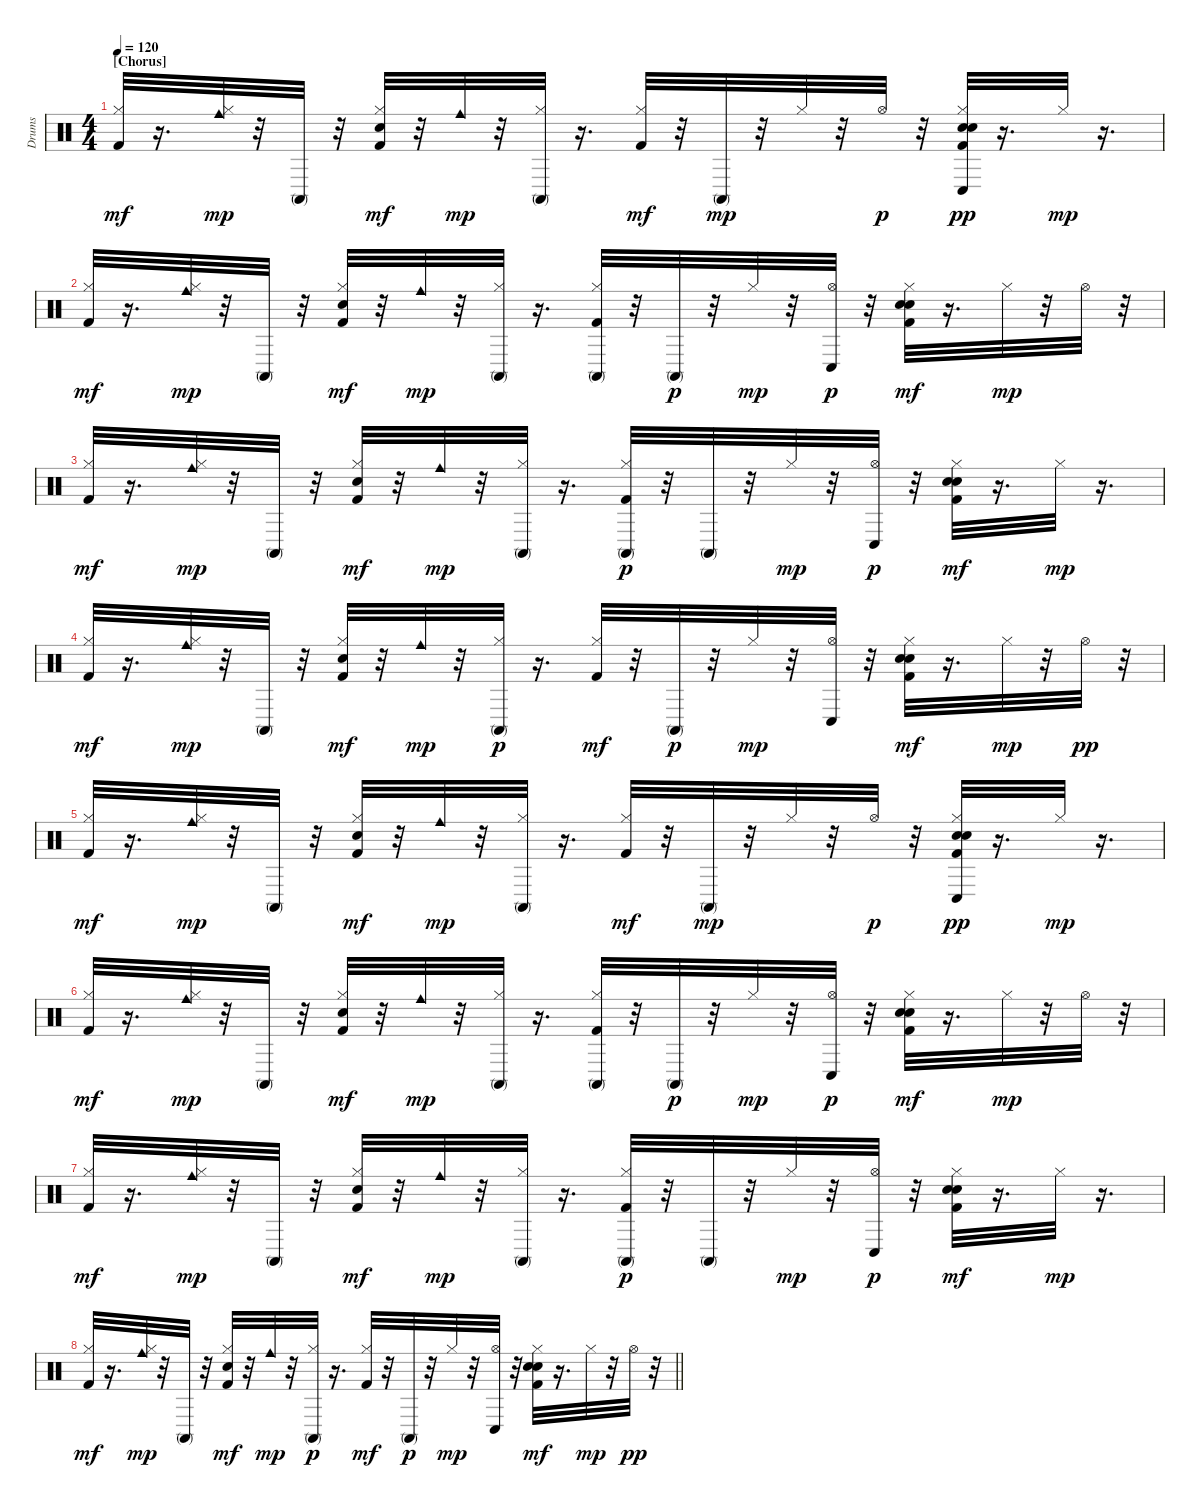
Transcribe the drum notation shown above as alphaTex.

\track ("Drums" "Drums") {instrument percussion}
\staff {score}
\articulation defaults
\ts (4 4)
\section ("" "[Chorus]")
\tempo 120
\clef neutral
\ks c
("Hi-Hat (closed)" "Kick (hit) 2").32{dy mf} r.16{d} ("Hi-Hat (closed)" "Cowbell medium (hit)").32{dy mp} r.32 "Conga high (mute)".32 r.32 ("Hi-Hat (closed)" "Electric Snare (hit)" "Kick (hit) 2").32{dy mf} r.32 "Cowbell medium (hit)".32{dy mp} r.32 ("Hi-Hat (closed)" "Conga high (mute)").32 r.16{d} ("Hi-Hat (closed)" "Kick (hit) 2").32{dy mf} r.32 "Conga high (mute)".32{dy mp} r.32 "Hi-Hat (closed)".32 r.32 "Hi-Hat (open)".32{dy p} r.32 ("Hi-Hat (closed)" "Kick (hit) 2" "Hand Clap (hit)" "Electric Snare (hit)" "Conga low (hit)").32{dy pp} r.16{d} "Hi-Hat (closed)".32{dy mp} r.16{d} |
("Hi-Hat (closed)" "Kick (hit) 2").32{dy mf} r.16{d} ("Hi-Hat (closed)" "Cowbell medium (hit)").32{dy mp} r.32 "Conga high (mute)".32 r.32 ("Hi-Hat (closed)" "Electric Snare (hit)" "Kick (hit) 2").32{dy mf} r.32 "Cowbell medium (hit)".32{dy mp} r.32 ("Hi-Hat (closed)" "Conga high (mute)").32 r.16{d} ("Hi-Hat (closed)" "Kick (hit) 2" "Conga high (mute)").32 r.32 "Conga high (mute)".32{dy p} r.32 "Hi-Hat (closed)".32{dy mp} r.32 ("Hi-Hat (open)" "Conga low (hit)").32{dy p} r.32 ("Kick (hit) 2" "Hi-Hat (closed)" "Electric Snare (hit)" "Hand Clap (hit)").32{dy mf} r.16{d} "Hi-Hat (closed)".32{dy mp} r.32 "Hi-Hat (open)".32 r.32 |
("Hi-Hat (closed)" "Kick (hit) 2").32{dy mf} r.16{d} ("Hi-Hat (closed)" "Cowbell medium (hit)").32{dy mp} r.32 "Conga high (mute)".32 r.32 ("Hi-Hat (closed)" "Electric Snare (hit)" "Kick (hit) 2").32{dy mf} r.32 "Cowbell medium (hit)".32{dy mp} r.32 ("Hi-Hat (closed)" "Conga high (mute)").32 r.16{d} ("Kick (hit) 2" "Hi-Hat (closed)" "Conga high (mute)").32{dy p} r.32 "Conga high (mute)".32 r.32 "Hi-Hat (closed)".32{dy mp} r.32 ("Hi-Hat (open)" "Conga low (hit)").32{dy p} r.32 ("Hi-Hat (closed)" "Hand Clap (hit)" "Electric Snare (hit)" "Kick (hit) 2").32{dy mf} r.16{d} "Hi-Hat (closed)".32{dy mp} r.16{d} |
("Hi-Hat (closed)" "Kick (hit) 2").32{dy mf} r.16{d} ("Hi-Hat (closed)" "Cowbell medium (hit)").32{dy mp} r.32 "Conga high (mute)".32 r.32 ("Hi-Hat (closed)" "Electric Snare (hit)" "Kick (hit) 2").32{dy mf} r.32 "Cowbell medium (hit)".32{dy mp} r.32 ("Hi-Hat (closed)" "Conga high (mute)").32{dy p} r.16{d} ("Hi-Hat (closed)" "Kick (hit) 2").32{dy mf} r.32 "Conga high (mute)".32{dy p} r.32 "Hi-Hat (closed)".32{dy mp} r.32 ("Hi-Hat (open)" "Conga low (hit)").32 r.32 ("Kick (hit) 2" "Hi-Hat (closed)" "Electric Snare (hit)" "Hand Clap (hit)").32{dy mf} r.16{d} "Hi-Hat (closed)".32{dy mp} r.32 "Hi-Hat (open)".32{dy pp} r.32 |
("Hi-Hat (closed)" "Kick (hit) 2").32{dy mf} r.16{d} ("Hi-Hat (closed)" "Cowbell medium (hit)").32{dy mp} r.32 "Conga high (mute)".32 r.32 ("Hi-Hat (closed)" "Electric Snare (hit)" "Kick (hit) 2").32{dy mf} r.32 "Cowbell medium (hit)".32{dy mp} r.32 ("Hi-Hat (closed)" "Conga high (mute)").32 r.16{d} ("Hi-Hat (closed)" "Kick (hit) 2").32{dy mf} r.32 "Conga high (mute)".32{dy mp} r.32 "Hi-Hat (closed)".32 r.32 "Hi-Hat (open)".32{dy p} r.32 ("Hi-Hat (closed)" "Kick (hit) 2" "Hand Clap (hit)" "Electric Snare (hit)" "Conga low (hit)").32{dy pp} r.16{d} "Hi-Hat (closed)".32{dy mp} r.16{d} |
("Hi-Hat (closed)" "Kick (hit) 2").32{dy mf} r.16{d} ("Hi-Hat (closed)" "Cowbell medium (hit)").32{dy mp} r.32 "Conga high (mute)".32 r.32 ("Hi-Hat (closed)" "Electric Snare (hit)" "Kick (hit) 2").32{dy mf} r.32 "Cowbell medium (hit)".32{dy mp} r.32 ("Hi-Hat (closed)" "Conga high (mute)").32 r.16{d} ("Hi-Hat (closed)" "Kick (hit) 2" "Conga high (mute)").32 r.32 "Conga high (mute)".32{dy p} r.32 "Hi-Hat (closed)".32{dy mp} r.32 ("Hi-Hat (open)" "Conga low (hit)").32{dy p} r.32 ("Kick (hit) 2" "Hi-Hat (closed)" "Electric Snare (hit)" "Hand Clap (hit)").32{dy mf} r.16{d} "Hi-Hat (closed)".32{dy mp} r.32 "Hi-Hat (open)".32 r.32 |
("Hi-Hat (closed)" "Kick (hit) 2").32{dy mf} r.16{d} ("Hi-Hat (closed)" "Cowbell medium (hit)").32{dy mp} r.32 "Conga high (mute)".32 r.32 ("Hi-Hat (closed)" "Electric Snare (hit)" "Kick (hit) 2").32{dy mf} r.32 "Cowbell medium (hit)".32{dy mp} r.32 ("Hi-Hat (closed)" "Conga high (mute)").32 r.16{d} ("Kick (hit) 2" "Hi-Hat (closed)" "Conga high (mute)").32{dy p} r.32 "Conga high (mute)".32 r.32 "Hi-Hat (closed)".32{dy mp} r.32 ("Hi-Hat (open)" "Conga low (hit)").32{dy p} r.32 ("Hi-Hat (closed)" "Hand Clap (hit)" "Electric Snare (hit)" "Kick (hit) 2").32{dy mf} r.16{d} "Hi-Hat (closed)".32{dy mp} r.16{d} |
\barLineRight lightlight
("Hi-Hat (closed)" "Kick (hit) 2").32{dy mf} r.16{d} ("Hi-Hat (closed)" "Cowbell medium (hit)").32{dy mp} r.32 "Conga high (mute)".32 r.32 ("Hi-Hat (closed)" "Electric Snare (hit)" "Kick (hit) 2").32{dy mf} r.32 "Cowbell medium (hit)".32{dy mp} r.32 ("Hi-Hat (closed)" "Conga high (mute)").32{dy p} r.16{d} ("Hi-Hat (closed)" "Kick (hit) 2").32{dy mf} r.32 "Conga high (mute)".32{dy p} r.32 "Hi-Hat (closed)".32{dy mp} r.32 ("Hi-Hat (open)" "Conga low (hit)").32 r.32 ("Kick (hit) 2" "Hi-Hat (closed)" "Electric Snare (hit)" "Hand Clap (hit)").32{dy mf} r.16{d} "Hi-Hat (closed)".32{dy mp} r.32 "Hi-Hat (open)".32{dy pp} r.32
